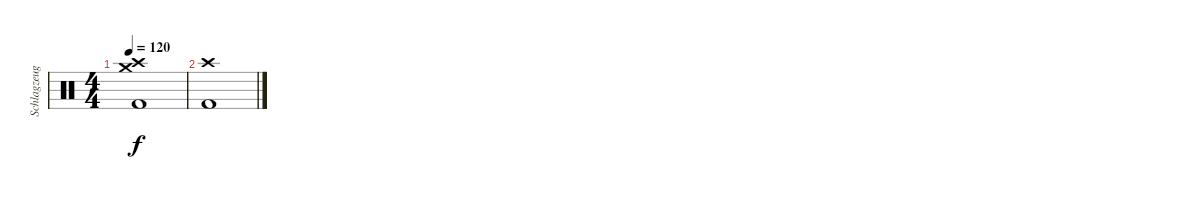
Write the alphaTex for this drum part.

\track ("Schlagzeug" "Schlagzeug") {instrument percussion}
\staff {score}
\articulation defaults
\ts (4 4)
\tempo 120
\clef neutral
\ks c
("Crash high (hit)" "Crash medium (hit)" "Kick (hit) 2").1{dy f} |
("Crash high (hit)" "Kick (hit) 2").1
